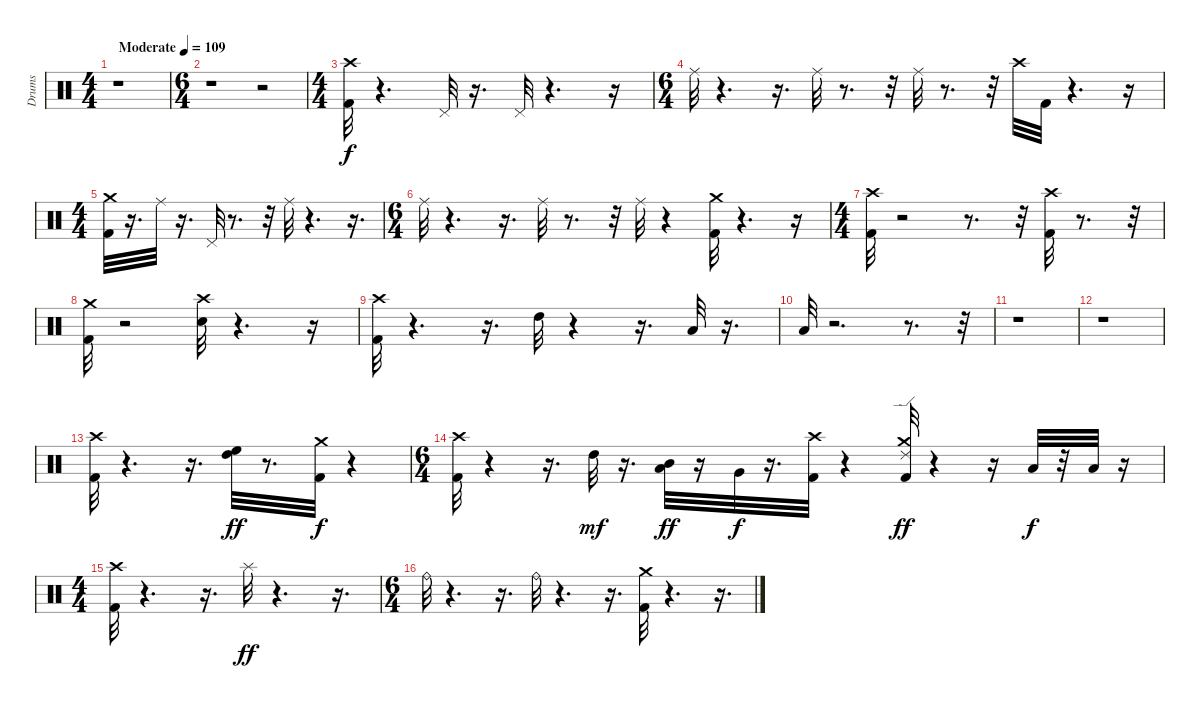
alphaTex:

\track ("Drums" "Drums") {solo instrument percussion}
\staff {score}
\articulation defaults
\ts (4 4)
\tempo (109 "Moderate")
\clef neutral
\ks c
r.1{dy f} |
\ts (6 4)
r.1 r.2 |
\ts (4 4)
("Kick (hit) 2" "Crash high (hit)").32{balance 8} r.4{d} "Pedal Hi-Hat (hit)".32 r.16{d} "Pedal Hi-Hat (hit)".32 r.4{d} r.16 |
\ts (6 4)
"Ride (middle)".32 r.4{d} r.16{d} "Ride (middle)".32 r.8{d} r.32 "Ride (middle)".32 r.8{d} r.32 "Crash high (hit)".32 "Kick (hit) 2".32 r.4{d} r.16 |
\ts (4 4)
("Crash medium (hit)" "Kick (hit) 2").32 r.16{d} "Ride (middle)".32 r.16{d} "Pedal Hi-Hat (hit)".32 r.8{d} r.32 "Ride (middle)".32 r.4{d} r.16{d} |
\ts (6 4)
"Ride (middle)".32 r.4{d} r.16{d} "Ride (middle)".32 r.8{d} r.32 "Ride (middle)".32 r.4 ("Kick (hit) 2" "Crash medium (hit)").32 r.4{d} r.16 |
\ts (4 4)
("Kick (hit) 2" "Crash high (hit)").32 r.2 r.8{d} r.32 ("Kick (hit) 2" "Crash high (hit)").32 r.8{d} r.32 |
("Kick (hit) 2" "Crash medium (hit)").32 r.2 ("Electric Snare (hit)" "Crash high (hit)").32 r.4{d} r.16 |
("Kick (hit) 2" "Crash high (hit)").32 r.4{d} r.16{d} "High Tom (hit)".32 r.4 r.16{d} "Low Tom (hit)".32 r.16{d} |
"Low Floor Tom (hit)".32 r.2{d} r.8{d} r.32 |
r.1 |
r.1 |
("Kick (hit) 2" "Crash high (hit)").32 r.4{d} r.16{d} ("High Floor Tom (hit)" "High Tom (hit)").32{dy ff} r.8{d} ("Kick (hit) 2" "Crash medium (hit)").32{dy f} r.4 |
\ts (6 4)
("Kick (hit) 2" "Crash high (hit)").32 r.4 r.16{d} "High Tom (hit)".32{dy mf} r.16{d} ("Mid Tom (hit)" "Low Tom (hit)").32{dy ff} r.16 "Very Low Tom (hit)".32{dy f} r.16{d} ("Kick (hit) 2" "Crash high (hit)").32 r.4 ("Kick (hit) 2" "Crash medium (hit)" "Ride (edge) 2").32{dy ff} r.4 r.16 "Low Floor Tom (hit)".32{dy f} r.32 "Low Floor Tom (hit)".32 r.16 |
\ts (4 4)
("Kick (hit) 2" "Crash high (hit)").32 r.4{d} r.16{d} "Splash (hit)".32{dy ff} r.4{d} r.16{d} |
\ts (6 4)
"Ride (bell)".32 r.4{d} r.16{d} "Ride (bell)".32 r.4{d} r.16{d} ("Kick (hit) 2" "Crash medium (hit)").32 r.4{d} r.16{d}
